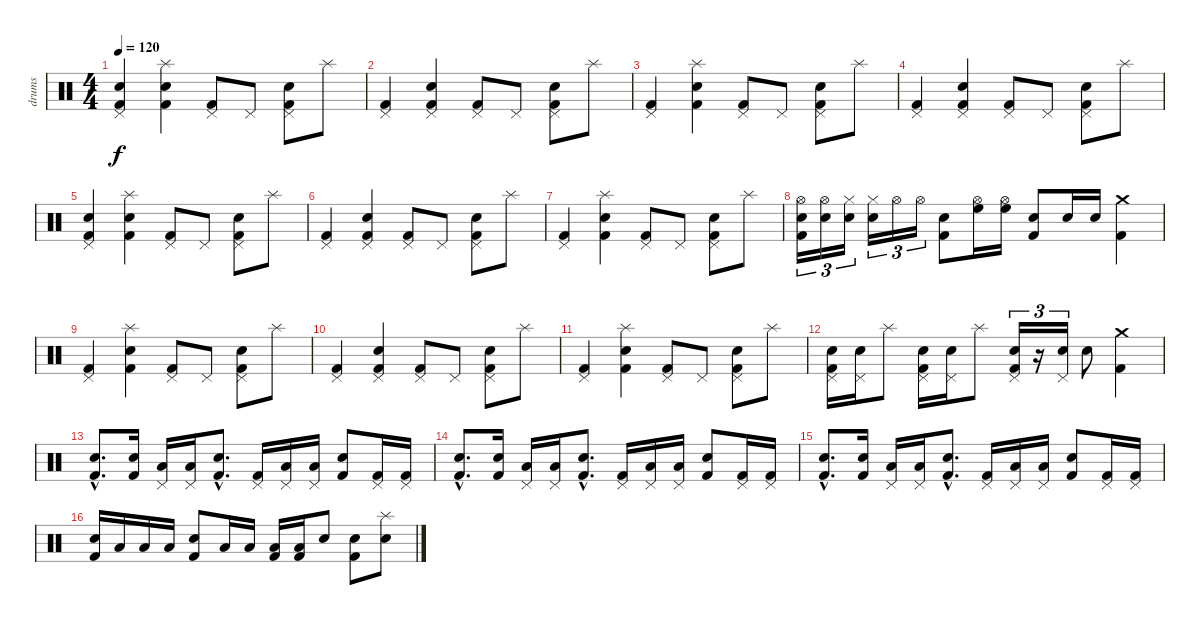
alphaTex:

\track ("drums" "drums") {instrument percussion}
\staff {score}
\articulation defaults
\ts (4 4)
\tempo 120
\clef neutral
\ks c
("Pedal Hi-Hat (hit)" "Electric Snare (hit)" "Kick (hit) 2").4{dy f} ("Splash (hit)" "Electric Snare (hit)" "Kick (hit) 2").4 ("Pedal Hi-Hat (hit)" "Kick (hit) 2").8 "Pedal Hi-Hat (hit)".8 ("Pedal Hi-Hat (hit)" "Electric Snare (hit)" "Kick (hit) 2").8 "Splash (hit)".8 |
("Pedal Hi-Hat (hit)" "Kick (hit) 2").4 ("Pedal Hi-Hat (hit)" "Electric Snare (hit)" "Kick (hit) 2").4 ("Pedal Hi-Hat (hit)" "Kick (hit) 2").8 "Pedal Hi-Hat (hit)".8 ("Pedal Hi-Hat (hit)" "Electric Snare (hit)" "Kick (hit) 2").8 "Splash (hit)".8 |
("Pedal Hi-Hat (hit)" "Kick (hit) 2").4 ("Splash (hit)" "Electric Snare (hit)" "Kick (hit) 2").4 ("Pedal Hi-Hat (hit)" "Kick (hit) 2").8 "Pedal Hi-Hat (hit)".8 ("Pedal Hi-Hat (hit)" "Electric Snare (hit)" "Kick (hit) 2").8 "Splash (hit)".8 |
("Pedal Hi-Hat (hit)" "Kick (hit) 2").4 ("Pedal Hi-Hat (hit)" "Electric Snare (hit)" "Kick (hit) 2").4 ("Pedal Hi-Hat (hit)" "Kick (hit) 2").8 "Pedal Hi-Hat (hit)".8 ("Pedal Hi-Hat (hit)" "Electric Snare (hit)" "Kick (hit) 2").8 "Splash (hit)".8 |
("Pedal Hi-Hat (hit)" "Electric Snare (hit)" "Kick (hit) 2").4 ("Splash (hit)" "Electric Snare (hit)" "Kick (hit) 2").4 ("Pedal Hi-Hat (hit)" "Kick (hit) 2").8 "Pedal Hi-Hat (hit)".8 ("Pedal Hi-Hat (hit)" "Electric Snare (hit)" "Kick (hit) 2").8 "Splash (hit)".8 |
("Pedal Hi-Hat (hit)" "Kick (hit) 2").4 ("Pedal Hi-Hat (hit)" "Electric Snare (hit)" "Kick (hit) 2").4 ("Pedal Hi-Hat (hit)" "Kick (hit) 2").8 "Pedal Hi-Hat (hit)".8 ("Pedal Hi-Hat (hit)" "Electric Snare (hit)" "Kick (hit) 2").8 "Splash (hit)".8 |
("Pedal Hi-Hat (hit)" "Kick (hit) 2").4 ("Splash (hit)" "Electric Snare (hit)" "Kick (hit) 2").4 ("Pedal Hi-Hat (hit)" "Kick (hit) 2").8 "Pedal Hi-Hat (hit)".8 ("Pedal Hi-Hat (hit)" "Electric Snare (hit)" "Kick (hit) 2").8 "Splash (hit)".8 |
("Hi-Hat (open)" "Snare (hit) 2" "Kick (hit) 2").16{tu (3 2)} ("Hi-Hat (open)" "Snare (hit) 2").16{tu (3 2)} ("Hi-Hat (closed)" "Electric Snare (hit)").16{tu (3 2)} ("Hi-Hat (closed)" "Electric Snare (hit)").16{tu (3 2)} "Hi-Hat (open)".16{tu (3 2)} "Hi-Hat (open)".16{tu (3 2)} ("Electric Snare (hit)" "Kick (hit) 2").8 ("Hi-Hat (open)" "High Floor Tom (hit)").16 ("Hi-Hat (open)" "High Floor Tom (hit)").16 ("Electric Snare (hit)" "Kick (hit) 2").8 "Snare (hit) 2".16 "Snare (hit) 2".16 ("Crash medium (hit)" "Kick (hit) 2").4 |
("Pedal Hi-Hat (hit)" "Kick (hit) 2").4 ("Splash (hit)" "Electric Snare (hit)" "Kick (hit) 2").4 ("Pedal Hi-Hat (hit)" "Kick (hit) 2").8 "Pedal Hi-Hat (hit)".8 ("Pedal Hi-Hat (hit)" "Electric Snare (hit)" "Kick (hit) 2").8 "Splash (hit)".8 |
("Pedal Hi-Hat (hit)" "Kick (hit) 2").4 ("Pedal Hi-Hat (hit)" "Electric Snare (hit)" "Kick (hit) 2").4 ("Pedal Hi-Hat (hit)" "Kick (hit) 2").8 "Pedal Hi-Hat (hit)".8 ("Pedal Hi-Hat (hit)" "Electric Snare (hit)" "Kick (hit) 2").8 "Splash (hit)".8 |
("Pedal Hi-Hat (hit)" "Kick (hit) 2").4 ("Splash (hit)" "Electric Snare (hit)" "Kick (hit) 2").4 ("Pedal Hi-Hat (hit)" "Kick (hit) 2").8 "Pedal Hi-Hat (hit)".8 ("Pedal Hi-Hat (hit)" "Electric Snare (hit)" "Kick (hit) 2").8 "Splash (hit)".8 |
("Pedal Hi-Hat (hit)" "Electric Snare (hit)" "Kick (hit) 2").16 ("Pedal Hi-Hat (hit)" "Electric Snare (hit)").16 "Splash (hit)".8 ("Pedal Hi-Hat (hit)" "Electric Snare (hit)" "Kick (hit) 2").16 ("Pedal Hi-Hat (hit)" "Electric Snare (hit)").16 "Splash (hit)".8 ("Pedal Hi-Hat (hit)" "Electric Snare (hit)" "Kick (hit) 2").16{tu (3 2)} r.16{tu (3 2)} ("Pedal Hi-Hat (hit)" "Electric Snare (hit)").16{tu (3 2)} "Electric Snare (hit)".8 ("Crash medium (hit)" "Kick (hit) 2").4 |
("Electric Snare (hit)"{hac} "Kick (hit) 2"{hac}).8{d} ("Electric Snare (hit)" "Kick (hit) 2").16 ("Pedal Hi-Hat (hit)" "Low Tom (hit)").16 ("Pedal Hi-Hat (hit)" "Low Tom (hit)").16 ("Electric Snare (hit)"{hac} "Kick (hit) 2"{hac}).8{d} ("Pedal Hi-Hat (hit)" "Kick (hit) 2").16 ("Pedal Hi-Hat (hit)" "Low Tom (hit)").16 ("Pedal Hi-Hat (hit)" "Low Tom (hit)").16 ("Electric Snare (hit)" "Kick (hit) 2").8 ("Pedal Hi-Hat (hit)" "Kick (hit) 2").16 ("Pedal Hi-Hat (hit)" "Kick (hit) 2").16 |
("Electric Snare (hit)"{hac} "Kick (hit) 2"{hac}).8{d} ("Electric Snare (hit)" "Kick (hit) 2").16 ("Pedal Hi-Hat (hit)" "Low Tom (hit)").16 ("Pedal Hi-Hat (hit)" "Low Tom (hit)").16 ("Electric Snare (hit)"{hac} "Kick (hit) 2"{hac}).8{d} ("Pedal Hi-Hat (hit)" "Kick (hit) 2").16 ("Pedal Hi-Hat (hit)" "Low Tom (hit)").16 ("Pedal Hi-Hat (hit)" "Low Tom (hit)").16 ("Electric Snare (hit)" "Kick (hit) 2").8 ("Pedal Hi-Hat (hit)" "Kick (hit) 2").16 ("Pedal Hi-Hat (hit)" "Kick (hit) 2").16 |
("Electric Snare (hit)"{hac} "Kick (hit) 2"{hac}).8{d} ("Electric Snare (hit)" "Kick (hit) 2").16 ("Pedal Hi-Hat (hit)" "Low Tom (hit)").16 ("Pedal Hi-Hat (hit)" "Low Tom (hit)").16 ("Electric Snare (hit)"{hac} "Kick (hit) 2"{hac}).8{d} ("Pedal Hi-Hat (hit)" "Kick (hit) 2").16 ("Pedal Hi-Hat (hit)" "Low Tom (hit)").16 ("Pedal Hi-Hat (hit)" "Low Tom (hit)").16 ("Electric Snare (hit)" "Kick (hit) 2").8 ("Pedal Hi-Hat (hit)" "Kick (hit) 2").16 ("Pedal Hi-Hat (hit)" "Kick (hit) 2").16 |
("Electric Snare (hit)" "Kick (hit) 2").16 "Low Tom (hit)".16 "Low Tom (hit)".16 "Low Tom (hit)".16 ("Electric Snare (hit)" "Kick (hit) 2").8 "Low Tom (hit)".16 "Low Tom (hit)".16 ("Low Tom (hit)" "Kick (hit) 2").16 ("Low Tom (hit)" "Kick (hit) 2").16 "Electric Snare (hit)".8 ("Electric Snare (hit)" "Kick (hit) 2").8 ("Splash (hit)" "Electric Snare (hit)").8
